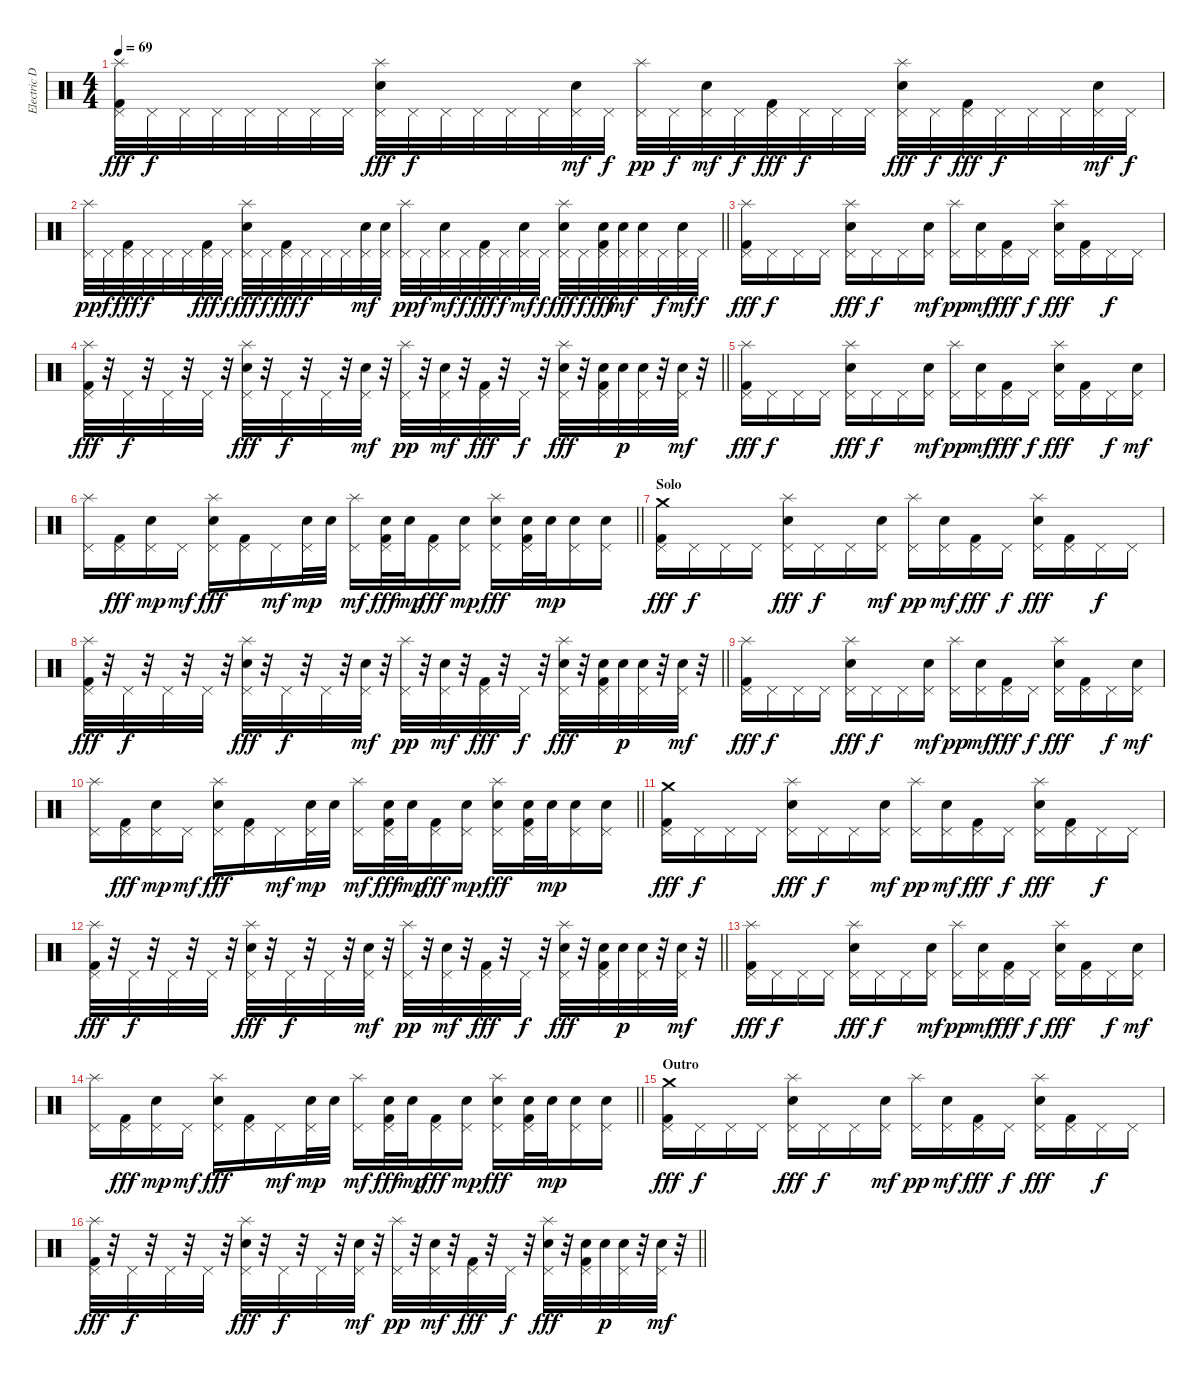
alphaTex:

\track ("Electric Drums" "Electric D") {instrument percussion}
\staff {score}
\articulation defaults
\ts (4 4)
\tempo 69
\clef neutral
\ks aminor
("Splash (hit)" "Pedal Hi-Hat (hit)" "Kick (hit) 2").32{dy fff} "Pedal Hi-Hat (hit)".32{dy f} "Pedal Hi-Hat (hit)".32 "Pedal Hi-Hat (hit)".32 "Pedal Hi-Hat (hit)".32 "Pedal Hi-Hat (hit)".32 "Pedal Hi-Hat (hit)".32 "Pedal Hi-Hat (hit)".32 ("Splash (hit)" "Pedal Hi-Hat (hit)" "Hand Clap (hit)").32{dy fff} "Pedal Hi-Hat (hit)".32{dy f} "Pedal Hi-Hat (hit)".32 "Pedal Hi-Hat (hit)".32 "Pedal Hi-Hat (hit)".32 "Pedal Hi-Hat (hit)".32 ("Pedal Hi-Hat (hit)" "Snare (hit) 2").32{dy mf} "Pedal Hi-Hat (hit)".32{dy f} ("Splash (hit)" "Pedal Hi-Hat (hit)").32{dy pp} "Pedal Hi-Hat (hit)".32{dy f} ("Pedal Hi-Hat (hit)" "Snare (hit) 2").32{dy mf} "Pedal Hi-Hat (hit)".32{dy f} ("Pedal Hi-Hat (hit)" "Kick (hit) 2").32{dy fff} "Pedal Hi-Hat (hit)".32{dy f} "Pedal Hi-Hat (hit)".32 "Pedal Hi-Hat (hit)".32 ("Splash (hit)" "Pedal Hi-Hat (hit)" "Hand Clap (hit)").32{dy fff} "Pedal Hi-Hat (hit)".32{dy f} ("Pedal Hi-Hat (hit)" "Kick (hit) 2").32{dy fff} "Pedal Hi-Hat (hit)".32{dy f} "Pedal Hi-Hat (hit)".32 "Pedal Hi-Hat (hit)".32 ("Pedal Hi-Hat (hit)" "Snare (hit) 2").32{dy mf} "Pedal Hi-Hat (hit)".32{dy f} |
\barLineRight lightlight
("Splash (hit)" "Pedal Hi-Hat (hit)").32{dy pp} "Pedal Hi-Hat (hit)".32{dy f} ("Pedal Hi-Hat (hit)" "Kick (hit) 2").32{dy fff} "Pedal Hi-Hat (hit)".32{dy f} "Pedal Hi-Hat (hit)".32 "Pedal Hi-Hat (hit)".32 ("Pedal Hi-Hat (hit)" "Kick (hit) 2").32{dy fff} "Pedal Hi-Hat (hit)".32{dy f} ("Splash (hit)" "Pedal Hi-Hat (hit)" "Hand Clap (hit)").32{dy fff} "Pedal Hi-Hat (hit)".32{dy f} ("Pedal Hi-Hat (hit)" "Kick (hit) 2").32{dy fff} "Pedal Hi-Hat (hit)".32{dy f} "Pedal Hi-Hat (hit)".32 "Pedal Hi-Hat (hit)".32 ("Pedal Hi-Hat (hit)" "Snare (hit) 2").32{dy mf} ("Pedal Hi-Hat (hit)" "Snare (hit) 2").32 ("Splash (hit)" "Pedal Hi-Hat (hit)").32{dy pp} "Pedal Hi-Hat (hit)".32{dy f} ("Pedal Hi-Hat (hit)" "Snare (hit) 2").32{dy mf} "Pedal Hi-Hat (hit)".32{dy f} ("Pedal Hi-Hat (hit)" "Kick (hit) 2").32{dy fff} "Pedal Hi-Hat (hit)".32{dy f} ("Pedal Hi-Hat (hit)" "Snare (hit) 2").32{dy mf} "Pedal Hi-Hat (hit)".32{dy f} ("Splash (hit)" "Pedal Hi-Hat (hit)" "Hand Clap (hit)").32{dy fff} "Pedal Hi-Hat (hit)".32{dy f} ("Pedal Hi-Hat (hit)" "Snare (hit) 2" "Kick (hit) 2").32{dy fff} ("Pedal Hi-Hat (hit)" "Snare (hit) 2").32{dy mf} ("Pedal Hi-Hat (hit)" "Snare (hit) 2").32 "Pedal Hi-Hat (hit)".32{dy f} ("Pedal Hi-Hat (hit)" "Snare (hit) 2").32{dy mf} "Pedal Hi-Hat (hit)".32{dy f} |
("Splash (hit)" "Pedal Hi-Hat (hit)" "Kick (hit) 2").16{dy fff} "Pedal Hi-Hat (hit)".16{dy f} "Pedal Hi-Hat (hit)".16 "Pedal Hi-Hat (hit)".16 ("Splash (hit)" "Pedal Hi-Hat (hit)" "Hand Clap (hit)").16{dy fff} "Pedal Hi-Hat (hit)".16{dy f} "Pedal Hi-Hat (hit)".16 ("Pedal Hi-Hat (hit)" "Snare (hit) 2").16{dy mf} ("Splash (hit)" "Pedal Hi-Hat (hit)").16{dy pp} ("Pedal Hi-Hat (hit)" "Snare (hit) 2").16{dy mf} ("Pedal Hi-Hat (hit)" "Kick (hit) 2").16{dy fff} "Pedal Hi-Hat (hit)".16{dy f} ("Splash (hit)" "Pedal Hi-Hat (hit)" "Hand Clap (hit)").16{dy fff} ("Pedal Hi-Hat (hit)" "Kick (hit) 2").16 "Pedal Hi-Hat (hit)".16{dy f} "Pedal Hi-Hat (hit)".16 |
\barLineRight lightlight
("Splash (hit)" "Pedal Hi-Hat (hit)" "Kick (hit) 2").32{dy fff} r.32 "Pedal Hi-Hat (hit)".32{dy f} r.32 "Pedal Hi-Hat (hit)".32 r.32 "Pedal Hi-Hat (hit)".32 r.32 ("Splash (hit)" "Pedal Hi-Hat (hit)" "Hand Clap (hit)").32{dy fff} r.32 "Pedal Hi-Hat (hit)".32{dy f} r.32 "Pedal Hi-Hat (hit)".32 r.32 ("Pedal Hi-Hat (hit)" "Snare (hit) 2").32{dy mf} r.32 ("Splash (hit)" "Pedal Hi-Hat (hit)").32{dy pp} r.32 ("Pedal Hi-Hat (hit)" "Snare (hit) 2").32{dy mf} r.32 ("Pedal Hi-Hat (hit)" "Kick (hit) 2").32{dy fff} r.32 "Pedal Hi-Hat (hit)".32{dy f} r.32 ("Splash (hit)" "Pedal Hi-Hat (hit)" "Hand Clap (hit)").32{dy fff} r.32 ("Pedal Hi-Hat (hit)" "Snare (hit) 2" "Kick (hit) 2").32 "Snare (hit) 2".32{dy p} ("Pedal Hi-Hat (hit)" "Snare (hit) 2").32 r.32 ("Pedal Hi-Hat (hit)" "Snare (hit) 2").32{dy mf} r.32 |
("Splash (hit)" "Pedal Hi-Hat (hit)" "Kick (hit) 2").16{dy fff} "Pedal Hi-Hat (hit)".16{dy f} "Pedal Hi-Hat (hit)".16 "Pedal Hi-Hat (hit)".16 ("Splash (hit)" "Pedal Hi-Hat (hit)" "Hand Clap (hit)").16{dy fff} "Pedal Hi-Hat (hit)".16{dy f} "Pedal Hi-Hat (hit)".16 ("Pedal Hi-Hat (hit)" "Snare (hit) 2").16{dy mf} ("Splash (hit)" "Pedal Hi-Hat (hit)").16{dy pp} ("Pedal Hi-Hat (hit)" "Snare (hit) 2").16{dy mf} ("Pedal Hi-Hat (hit)" "Kick (hit) 2").16{dy fff} "Pedal Hi-Hat (hit)".16{dy f} ("Splash (hit)" "Pedal Hi-Hat (hit)" "Hand Clap (hit)").16{dy fff} ("Pedal Hi-Hat (hit)" "Kick (hit) 2").16 "Pedal Hi-Hat (hit)".16{dy f} ("Pedal Hi-Hat (hit)" "Snare (hit) 2").16{dy mf} |
\barLineRight lightlight
("Splash (hit)" "Pedal Hi-Hat (hit)").16 ("Pedal Hi-Hat (hit)" "Kick (hit) 2").16{dy fff} ("Pedal Hi-Hat (hit)" "Snare (hit) 2").16{dy mp} "Pedal Hi-Hat (hit)".16{dy mf} ("Splash (hit)" "Pedal Hi-Hat (hit)" "Hand Clap (hit)").16{dy fff} ("Pedal Hi-Hat (hit)" "Kick (hit) 2").16 "Pedal Hi-Hat (hit)".16{dy mf} ("Pedal Hi-Hat (hit)" "Snare (hit) 2").32{dy mp} "Snare (hit) 2".32 ("Splash (hit)" "Pedal Hi-Hat (hit)").16{dy mf} ("Pedal Hi-Hat (hit)" "Snare (hit) 2" "Kick (hit) 2").32{dy fff} "Snare (hit) 2".32{dy mp} ("Pedal Hi-Hat (hit)" "Kick (hit) 2").16{dy fff} ("Pedal Hi-Hat (hit)" "Snare (hit) 2").16{dy mp} ("Splash (hit)" "Pedal Hi-Hat (hit)" "Hand Clap (hit)").16{dy fff} ("Pedal Hi-Hat (hit)" "Snare (hit) 2" "Kick (hit) 2").32 "Snare (hit) 2".32{dy mp} ("Pedal Hi-Hat (hit)" "Snare (hit) 2").16 ("Pedal Hi-Hat (hit)" "Snare (hit) 2").16 |
\section ("" "Solo")
("Crash medium (hit)" "Pedal Hi-Hat (hit)" "Kick (hit) 2").16{dy fff} "Pedal Hi-Hat (hit)".16{dy f} "Pedal Hi-Hat (hit)".16 "Pedal Hi-Hat (hit)".16 ("Splash (hit)" "Pedal Hi-Hat (hit)" "Hand Clap (hit)").16{dy fff} "Pedal Hi-Hat (hit)".16{dy f} "Pedal Hi-Hat (hit)".16 ("Pedal Hi-Hat (hit)" "Snare (hit) 2").16{dy mf} ("Splash (hit)" "Pedal Hi-Hat (hit)").16{dy pp} ("Pedal Hi-Hat (hit)" "Snare (hit) 2").16{dy mf} ("Pedal Hi-Hat (hit)" "Kick (hit) 2").16{dy fff} "Pedal Hi-Hat (hit)".16{dy f} ("Splash (hit)" "Pedal Hi-Hat (hit)" "Hand Clap (hit)").16{dy fff} ("Pedal Hi-Hat (hit)" "Kick (hit) 2").16 "Pedal Hi-Hat (hit)".16{dy f} "Pedal Hi-Hat (hit)".16 |
\barLineRight lightlight
("Splash (hit)" "Pedal Hi-Hat (hit)" "Kick (hit) 2").32{dy fff} r.32 "Pedal Hi-Hat (hit)".32{dy f} r.32 "Pedal Hi-Hat (hit)".32 r.32 "Pedal Hi-Hat (hit)".32 r.32 ("Splash (hit)" "Pedal Hi-Hat (hit)" "Hand Clap (hit)").32{dy fff} r.32 "Pedal Hi-Hat (hit)".32{dy f} r.32 "Pedal Hi-Hat (hit)".32 r.32 ("Pedal Hi-Hat (hit)" "Snare (hit) 2").32{dy mf} r.32 ("Splash (hit)" "Pedal Hi-Hat (hit)").32{dy pp} r.32 ("Pedal Hi-Hat (hit)" "Snare (hit) 2").32{dy mf} r.32 ("Pedal Hi-Hat (hit)" "Kick (hit) 2").32{dy fff} r.32 "Pedal Hi-Hat (hit)".32{dy f} r.32 ("Splash (hit)" "Pedal Hi-Hat (hit)" "Hand Clap (hit)").32{dy fff} r.32 ("Pedal Hi-Hat (hit)" "Snare (hit) 2" "Kick (hit) 2").32 "Snare (hit) 2".32{dy p} ("Pedal Hi-Hat (hit)" "Snare (hit) 2").32 r.32 ("Pedal Hi-Hat (hit)" "Snare (hit) 2").32{dy mf} r.32 |
("Splash (hit)" "Pedal Hi-Hat (hit)" "Kick (hit) 2").16{dy fff} "Pedal Hi-Hat (hit)".16{dy f} "Pedal Hi-Hat (hit)".16 "Pedal Hi-Hat (hit)".16 ("Splash (hit)" "Pedal Hi-Hat (hit)" "Hand Clap (hit)").16{dy fff} "Pedal Hi-Hat (hit)".16{dy f} "Pedal Hi-Hat (hit)".16 ("Pedal Hi-Hat (hit)" "Snare (hit) 2").16{dy mf} ("Splash (hit)" "Pedal Hi-Hat (hit)").16{dy pp} ("Pedal Hi-Hat (hit)" "Snare (hit) 2").16{dy mf} ("Pedal Hi-Hat (hit)" "Kick (hit) 2").16{dy fff} "Pedal Hi-Hat (hit)".16{dy f} ("Splash (hit)" "Pedal Hi-Hat (hit)" "Hand Clap (hit)").16{dy fff} ("Pedal Hi-Hat (hit)" "Kick (hit) 2").16 "Pedal Hi-Hat (hit)".16{dy f} ("Pedal Hi-Hat (hit)" "Snare (hit) 2").16{dy mf} |
\barLineRight lightlight
("Splash (hit)" "Pedal Hi-Hat (hit)").16 ("Pedal Hi-Hat (hit)" "Kick (hit) 2").16{dy fff} ("Pedal Hi-Hat (hit)" "Snare (hit) 2").16{dy mp} "Pedal Hi-Hat (hit)".16{dy mf} ("Splash (hit)" "Pedal Hi-Hat (hit)" "Hand Clap (hit)").16{dy fff} ("Pedal Hi-Hat (hit)" "Kick (hit) 2").16 "Pedal Hi-Hat (hit)".16{dy mf} ("Pedal Hi-Hat (hit)" "Snare (hit) 2").32{dy mp} "Snare (hit) 2".32 ("Splash (hit)" "Pedal Hi-Hat (hit)").16{dy mf} ("Pedal Hi-Hat (hit)" "Snare (hit) 2" "Kick (hit) 2").32{dy fff} "Snare (hit) 2".32{dy mp} ("Pedal Hi-Hat (hit)" "Kick (hit) 2").16{dy fff} ("Pedal Hi-Hat (hit)" "Snare (hit) 2").16{dy mp} ("Splash (hit)" "Pedal Hi-Hat (hit)" "Hand Clap (hit)").16{dy fff} ("Pedal Hi-Hat (hit)" "Snare (hit) 2" "Kick (hit) 2").32 "Snare (hit) 2".32{dy mp} ("Pedal Hi-Hat (hit)" "Snare (hit) 2").16 ("Pedal Hi-Hat (hit)" "Snare (hit) 2").16 |
("Crash medium (hit)" "Pedal Hi-Hat (hit)" "Kick (hit) 2").16{dy fff} "Pedal Hi-Hat (hit)".16{dy f} "Pedal Hi-Hat (hit)".16 "Pedal Hi-Hat (hit)".16 ("Splash (hit)" "Pedal Hi-Hat (hit)" "Hand Clap (hit)").16{dy fff} "Pedal Hi-Hat (hit)".16{dy f} "Pedal Hi-Hat (hit)".16 ("Pedal Hi-Hat (hit)" "Snare (hit) 2").16{dy mf} ("Splash (hit)" "Pedal Hi-Hat (hit)").16{dy pp} ("Pedal Hi-Hat (hit)" "Snare (hit) 2").16{dy mf} ("Pedal Hi-Hat (hit)" "Kick (hit) 2").16{dy fff} "Pedal Hi-Hat (hit)".16{dy f} ("Splash (hit)" "Pedal Hi-Hat (hit)" "Hand Clap (hit)").16{dy fff} ("Pedal Hi-Hat (hit)" "Kick (hit) 2").16 "Pedal Hi-Hat (hit)".16{dy f} "Pedal Hi-Hat (hit)".16 |
\barLineRight lightlight
("Splash (hit)" "Pedal Hi-Hat (hit)" "Kick (hit) 2").32{dy fff} r.32 "Pedal Hi-Hat (hit)".32{dy f} r.32 "Pedal Hi-Hat (hit)".32 r.32 "Pedal Hi-Hat (hit)".32 r.32 ("Splash (hit)" "Pedal Hi-Hat (hit)" "Hand Clap (hit)").32{dy fff} r.32 "Pedal Hi-Hat (hit)".32{dy f} r.32 "Pedal Hi-Hat (hit)".32 r.32 ("Pedal Hi-Hat (hit)" "Snare (hit) 2").32{dy mf} r.32 ("Splash (hit)" "Pedal Hi-Hat (hit)").32{dy pp} r.32 ("Pedal Hi-Hat (hit)" "Snare (hit) 2").32{dy mf} r.32 ("Pedal Hi-Hat (hit)" "Kick (hit) 2").32{dy fff} r.32 "Pedal Hi-Hat (hit)".32{dy f} r.32 ("Splash (hit)" "Pedal Hi-Hat (hit)" "Hand Clap (hit)").32{dy fff} r.32 ("Pedal Hi-Hat (hit)" "Snare (hit) 2" "Kick (hit) 2").32 "Snare (hit) 2".32{dy p} ("Pedal Hi-Hat (hit)" "Snare (hit) 2").32 r.32 ("Pedal Hi-Hat (hit)" "Snare (hit) 2").32{dy mf} r.32 |
("Splash (hit)" "Pedal Hi-Hat (hit)" "Kick (hit) 2").16{dy fff} "Pedal Hi-Hat (hit)".16{dy f} "Pedal Hi-Hat (hit)".16 "Pedal Hi-Hat (hit)".16 ("Splash (hit)" "Pedal Hi-Hat (hit)" "Hand Clap (hit)").16{dy fff} "Pedal Hi-Hat (hit)".16{dy f} "Pedal Hi-Hat (hit)".16 ("Pedal Hi-Hat (hit)" "Snare (hit) 2").16{dy mf} ("Splash (hit)" "Pedal Hi-Hat (hit)").16{dy pp} ("Pedal Hi-Hat (hit)" "Snare (hit) 2").16{dy mf} ("Pedal Hi-Hat (hit)" "Kick (hit) 2").16{dy fff} "Pedal Hi-Hat (hit)".16{dy f} ("Splash (hit)" "Pedal Hi-Hat (hit)" "Hand Clap (hit)").16{dy fff} ("Pedal Hi-Hat (hit)" "Kick (hit) 2").16 "Pedal Hi-Hat (hit)".16{dy f} ("Pedal Hi-Hat (hit)" "Snare (hit) 2").16{dy mf} |
\barLineRight lightlight
("Splash (hit)" "Pedal Hi-Hat (hit)").16 ("Pedal Hi-Hat (hit)" "Kick (hit) 2").16{dy fff} ("Pedal Hi-Hat (hit)" "Snare (hit) 2").16{dy mp} "Pedal Hi-Hat (hit)".16{dy mf} ("Splash (hit)" "Pedal Hi-Hat (hit)" "Hand Clap (hit)").16{dy fff} ("Pedal Hi-Hat (hit)" "Kick (hit) 2").16 "Pedal Hi-Hat (hit)".16{dy mf} ("Pedal Hi-Hat (hit)" "Snare (hit) 2").32{dy mp} "Snare (hit) 2".32 ("Splash (hit)" "Pedal Hi-Hat (hit)").16{dy mf} ("Pedal Hi-Hat (hit)" "Snare (hit) 2" "Kick (hit) 2").32{dy fff} "Snare (hit) 2".32{dy mp} ("Pedal Hi-Hat (hit)" "Kick (hit) 2").16{dy fff} ("Pedal Hi-Hat (hit)" "Snare (hit) 2").16{dy mp} ("Splash (hit)" "Pedal Hi-Hat (hit)" "Hand Clap (hit)").16{dy fff} ("Pedal Hi-Hat (hit)" "Snare (hit) 2" "Kick (hit) 2").32 "Snare (hit) 2".32{dy mp} ("Pedal Hi-Hat (hit)" "Snare (hit) 2").16 ("Pedal Hi-Hat (hit)" "Snare (hit) 2").16 |
\section ("" "Outro")
("Crash medium (hit)" "Pedal Hi-Hat (hit)" "Kick (hit) 2").16{dy fff} "Pedal Hi-Hat (hit)".16{dy f} "Pedal Hi-Hat (hit)".16 "Pedal Hi-Hat (hit)".16 ("Splash (hit)" "Pedal Hi-Hat (hit)" "Hand Clap (hit)").16{dy fff} "Pedal Hi-Hat (hit)".16{dy f} "Pedal Hi-Hat (hit)".16 ("Pedal Hi-Hat (hit)" "Snare (hit) 2").16{dy mf} ("Splash (hit)" "Pedal Hi-Hat (hit)").16{dy pp} ("Pedal Hi-Hat (hit)" "Snare (hit) 2").16{dy mf} ("Pedal Hi-Hat (hit)" "Kick (hit) 2").16{dy fff} "Pedal Hi-Hat (hit)".16{dy f} ("Splash (hit)" "Pedal Hi-Hat (hit)" "Hand Clap (hit)").16{dy fff} ("Pedal Hi-Hat (hit)" "Kick (hit) 2").16 "Pedal Hi-Hat (hit)".16{dy f} "Pedal Hi-Hat (hit)".16 |
\barLineRight lightlight
("Splash (hit)" "Pedal Hi-Hat (hit)" "Kick (hit) 2").32{dy fff} r.32 "Pedal Hi-Hat (hit)".32{dy f} r.32 "Pedal Hi-Hat (hit)".32 r.32 "Pedal Hi-Hat (hit)".32 r.32 ("Splash (hit)" "Pedal Hi-Hat (hit)" "Hand Clap (hit)").32{dy fff} r.32 "Pedal Hi-Hat (hit)".32{dy f} r.32 "Pedal Hi-Hat (hit)".32 r.32 ("Pedal Hi-Hat (hit)" "Snare (hit) 2").32{dy mf} r.32 ("Splash (hit)" "Pedal Hi-Hat (hit)").32{dy pp} r.32 ("Pedal Hi-Hat (hit)" "Snare (hit) 2").32{dy mf} r.32 ("Pedal Hi-Hat (hit)" "Kick (hit) 2").32{dy fff} r.32 "Pedal Hi-Hat (hit)".32{dy f} r.32 ("Splash (hit)" "Pedal Hi-Hat (hit)" "Hand Clap (hit)").32{dy fff} r.32 ("Pedal Hi-Hat (hit)" "Snare (hit) 2" "Kick (hit) 2").32 "Snare (hit) 2".32{dy p} ("Pedal Hi-Hat (hit)" "Snare (hit) 2").32 r.32 ("Pedal Hi-Hat (hit)" "Snare (hit) 2").32{dy mf} r.32
